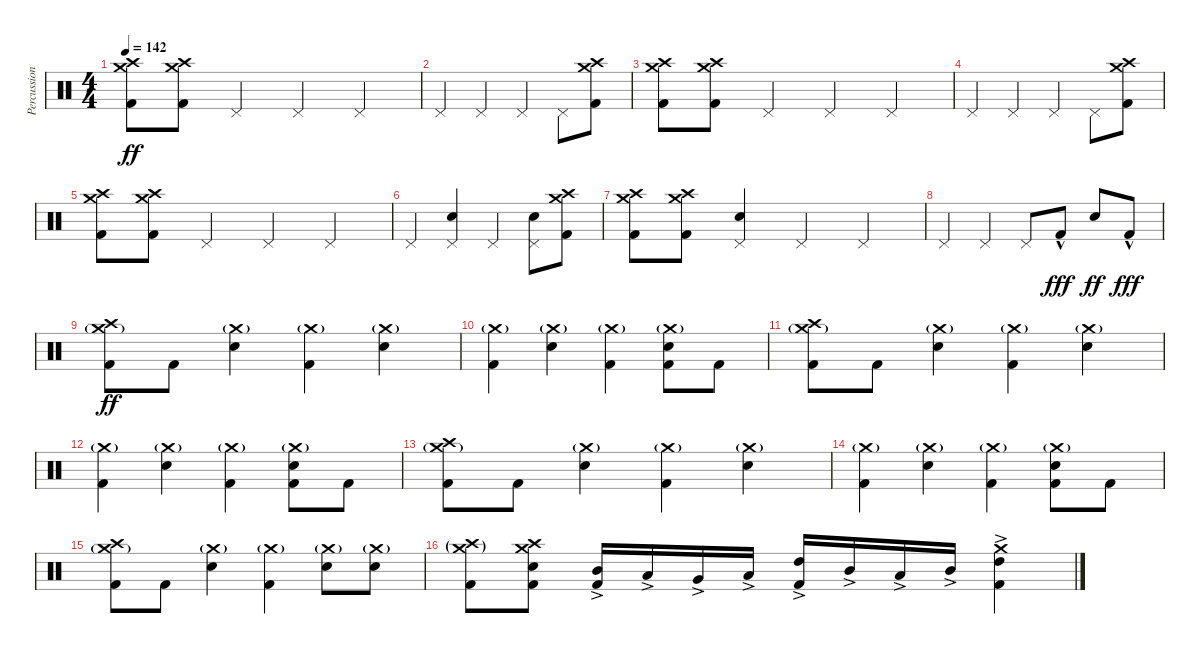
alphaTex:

\track ("Percussion" "Percussion") {instrument percussion}
\staff {score}
\articulation defaults
\ts (4 4)
\tempo 142
\clef neutral
\ks c
("Crash medium (hit)" "Crash high (hit)" "Kick (hit) 2").8{dy ff} ("Crash medium (hit)" "Crash high (hit)" "Kick (hit) 2").8 "Pedal Hi-Hat (hit)".4 "Pedal Hi-Hat (hit)".4 "Pedal Hi-Hat (hit)".4 |
"Pedal Hi-Hat (hit)".4 "Pedal Hi-Hat (hit)".4 "Pedal Hi-Hat (hit)".4 "Pedal Hi-Hat (hit)".8 ("Crash medium (hit)" "Crash high (hit)" "Kick (hit) 2").8 |
("Crash medium (hit)" "Crash high (hit)" "Kick (hit) 2").8 ("Crash medium (hit)" "Crash high (hit)" "Kick (hit) 2").8 "Pedal Hi-Hat (hit)".4 "Pedal Hi-Hat (hit)".4 "Pedal Hi-Hat (hit)".4 |
"Pedal Hi-Hat (hit)".4 "Pedal Hi-Hat (hit)".4 "Pedal Hi-Hat (hit)".4 "Pedal Hi-Hat (hit)".8 ("Crash medium (hit)" "Crash high (hit)" "Kick (hit) 2").8 |
("Crash medium (hit)" "Crash high (hit)" "Kick (hit) 2").8 ("Crash medium (hit)" "Crash high (hit)" "Kick (hit) 2").8 "Pedal Hi-Hat (hit)".4 "Pedal Hi-Hat (hit)".4 "Pedal Hi-Hat (hit)".4 |
"Pedal Hi-Hat (hit)".4 ("Electric Snare (hit)" "Pedal Hi-Hat (hit)").4 "Pedal Hi-Hat (hit)".4 ("Electric Snare (hit)" "Pedal Hi-Hat (hit)").8 ("Crash medium (hit)" "Crash high (hit)" "Kick (hit) 2").8 |
("Crash medium (hit)" "Crash high (hit)" "Kick (hit) 2").8 ("Crash medium (hit)" "Crash high (hit)" "Kick (hit) 2").8 ("Electric Snare (hit)" "Pedal Hi-Hat (hit)").4 "Pedal Hi-Hat (hit)".4 "Pedal Hi-Hat (hit)".4 |
"Pedal Hi-Hat (hit)".4 "Pedal Hi-Hat (hit)".4 "Pedal Hi-Hat (hit)".8 "Kick (hit) 2"{hac}.8{dy fff} "Electric Snare (hit)".8{dy ff} "Kick (hit) 2"{hac}.8{dy fff} |
("Crash medium (hit)"{g} "Crash high (hit)" "Kick (hit) 2").8{dy ff} "Kick (hit) 2".8 ("Crash medium (hit)"{g} "Electric Snare (hit)").4 ("Crash medium (hit)"{g} "Kick (hit) 2").4 ("Crash medium (hit)"{g} "Electric Snare (hit)").4 |
("Crash medium (hit)"{g} "Kick (hit) 2").4 ("Crash medium (hit)"{g} "Electric Snare (hit)").4 ("Crash medium (hit)"{g} "Kick (hit) 2").4 ("Crash medium (hit)"{g} "Electric Snare (hit)" "Kick (hit) 2").8 "Kick (hit) 2".8 |
("Crash medium (hit)"{g} "Crash high (hit)" "Kick (hit) 2").8 "Kick (hit) 2".8 ("Crash medium (hit)"{g} "Electric Snare (hit)").4 ("Crash medium (hit)"{g} "Kick (hit) 2").4 ("Crash medium (hit)"{g} "Electric Snare (hit)").4 |
("Crash medium (hit)"{g} "Kick (hit) 2").4 ("Crash medium (hit)"{g} "Electric Snare (hit)").4 ("Crash medium (hit)"{g} "Kick (hit) 2").4 ("Crash medium (hit)"{g} "Electric Snare (hit)" "Kick (hit) 2").8 "Kick (hit) 2".8 |
("Crash medium (hit)"{g} "Crash high (hit)" "Kick (hit) 2").8 "Kick (hit) 2".8 ("Crash medium (hit)"{g} "Electric Snare (hit)").4 ("Crash medium (hit)"{g} "Kick (hit) 2").4 ("Crash medium (hit)"{g} "Electric Snare (hit)").4 |
("Crash medium (hit)"{g} "Kick (hit) 2").4 ("Crash medium (hit)"{g} "Electric Snare (hit)").4 ("Crash medium (hit)"{g} "Kick (hit) 2").4 ("Crash medium (hit)"{g} "Electric Snare (hit)" "Kick (hit) 2").8 "Kick (hit) 2".8 |
("Crash medium (hit)"{g} "Crash high (hit)" "Kick (hit) 2").8 "Kick (hit) 2".8 ("Crash medium (hit)"{g} "Electric Snare (hit)").4 ("Crash medium (hit)"{g} "Kick (hit) 2").4 ("Crash medium (hit)"{g} "Electric Snare (hit)").8 ("Crash medium (hit)"{g} "Electric Snare (hit)").8 |
("Crash medium (hit)"{g} "Crash high (hit)"{g} "Kick (hit) 2").8 ("Crash medium (hit)" "Crash high (hit)" "Electric Snare (hit)" "Kick (hit) 2").8 ("Mid Tom (hit)"{ac} "Kick (hit) 2").16 "Low Tom (hit)"{ac}.16 "Very Low Tom (hit)"{ac}.16 "Low Tom (hit)"{ac}.16 ("High Tom (hit)"{ac} "Kick (hit) 2"{ac}).16 "Mid Tom (hit)"{ac}.16 "Low Tom (hit)"{ac}.16 "Mid Tom (hit)"{ac}.16 ("Crash medium (hit)" "High Tom (hit)"{ac} "Kick (hit) 2").4
